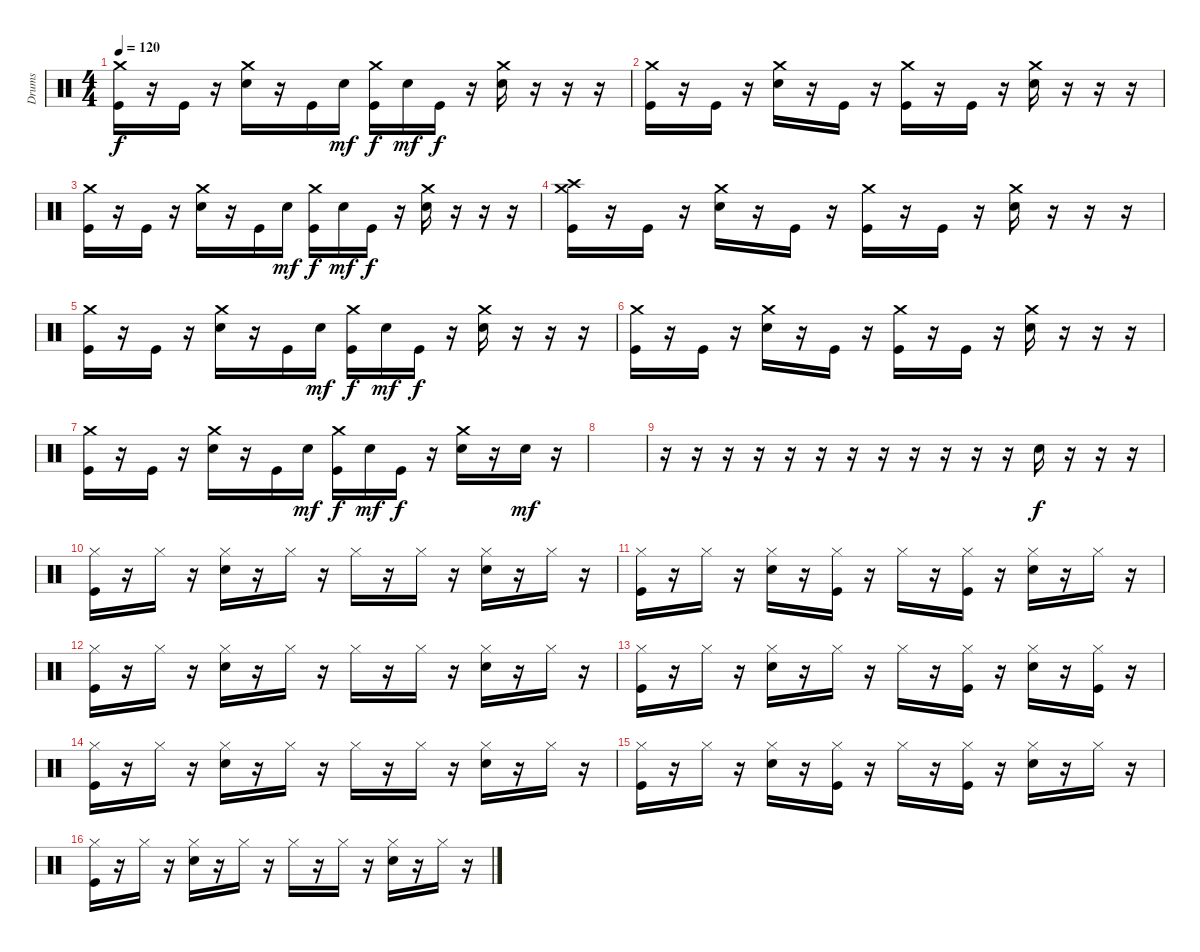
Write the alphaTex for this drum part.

\track ("Drums" "Drums") {instrument percussion}
\staff {score}
\articulation defaults
\ts (4 4)
\tempo 120
\clef neutral
\ks c
("Kick (hit)" "Crash medium (hit)").16{dy f} r.16 "Kick (hit)".16 r.16 ("Electric Snare (hit)" "Crash medium (hit)").16 r.16 "Kick (hit)".16 "Electric Snare (hit)".16{dy mf} ("Kick (hit)" "Crash medium (hit)").16{dy f} "Electric Snare (hit)".16{dy mf} "Kick (hit)".16{dy f} r.16 ("Electric Snare (hit)" "Crash medium (hit)").16 r.16 r.16 r.16 |
("Kick (hit)" "Crash medium (hit)").16 r.16 "Kick (hit)".16 r.16 ("Electric Snare (hit)" "Crash medium (hit)").16 r.16 "Kick (hit)".16 r.16 ("Kick (hit)" "Crash medium (hit)").16 r.16 "Kick (hit)".16 r.16 ("Electric Snare (hit)" "Crash medium (hit)").16 r.16 r.16 r.16 |
("Kick (hit)" "Crash medium (hit)").16 r.16 "Kick (hit)".16 r.16 ("Electric Snare (hit)" "Crash medium (hit)").16 r.16 "Kick (hit)".16 "Electric Snare (hit)".16{dy mf} ("Kick (hit)" "Crash medium (hit)").16{dy f} "Electric Snare (hit)".16{dy mf} "Kick (hit)".16{dy f} r.16 ("Electric Snare (hit)" "Crash medium (hit)").16 r.16 r.16 r.16 |
("Kick (hit)" "Crash high (hit)" "Crash medium (hit)").16 r.16 "Kick (hit)".16 r.16 ("Electric Snare (hit)" "Crash medium (hit)").16 r.16 "Kick (hit)".16 r.16 ("Kick (hit)" "Crash medium (hit)").16 r.16 "Kick (hit)".16 r.16 ("Electric Snare (hit)" "Crash medium (hit)").16 r.16 r.16 r.16 |
("Kick (hit)" "Crash medium (hit)").16 r.16 "Kick (hit)".16 r.16 ("Electric Snare (hit)" "Crash medium (hit)").16 r.16 "Kick (hit)".16 "Electric Snare (hit)".16{dy mf} ("Kick (hit)" "Crash medium (hit)").16{dy f} "Electric Snare (hit)".16{dy mf} "Kick (hit)".16{dy f} r.16 ("Electric Snare (hit)" "Crash medium (hit)").16 r.16 r.16 r.16 |
("Kick (hit)" "Crash medium (hit)").16 r.16 "Kick (hit)".16 r.16 ("Electric Snare (hit)" "Crash medium (hit)").16 r.16 "Kick (hit)".16 r.16 ("Kick (hit)" "Crash medium (hit)").16 r.16 "Kick (hit)".16 r.16 ("Electric Snare (hit)" "Crash medium (hit)").16 r.16 r.16 r.16 |
("Kick (hit)" "Crash medium (hit)").16 r.16 "Kick (hit)".16 r.16 ("Electric Snare (hit)" "Crash medium (hit)").16 r.16 "Kick (hit)".16 "Electric Snare (hit)".16{dy mf} ("Kick (hit)" "Crash medium (hit)").16{dy f} "Electric Snare (hit)".16{dy mf} "Kick (hit)".16{dy f} r.16 ("Electric Snare (hit)" "Crash medium (hit)").16 r.16 "Electric Snare (hit)".16{dy mf} r.16 |
|
r.16 r.16 r.16 r.16 r.16 r.16 r.16 r.16 r.16 r.16 r.16 r.16 "Electric Snare (hit)".16{dy f} r.16 r.16 r.16 |
("Kick (hit)" "Hi-Hat (closed)").16 r.16 "Hi-Hat (closed)".16 r.16 ("Electric Snare (hit)" "Hi-Hat (closed)").16 r.16 "Hi-Hat (closed)".16 r.16 "Hi-Hat (closed)".16 r.16 "Hi-Hat (closed)".16 r.16 ("Electric Snare (hit)" "Hi-Hat (closed)").16 r.16 "Hi-Hat (closed)".16 r.16 |
("Kick (hit)" "Hi-Hat (closed)").16 r.16 "Hi-Hat (closed)".16 r.16 ("Electric Snare (hit)" "Hi-Hat (closed)").16 r.16 ("Kick (hit)" "Hi-Hat (closed)").16 r.16 "Hi-Hat (closed)".16 r.16 ("Kick (hit)" "Hi-Hat (closed)").16 r.16 ("Electric Snare (hit)" "Hi-Hat (closed)").16 r.16 "Hi-Hat (closed)".16 r.16 |
("Kick (hit)" "Hi-Hat (closed)").16 r.16 "Hi-Hat (closed)".16 r.16 ("Electric Snare (hit)" "Hi-Hat (closed)").16 r.16 "Hi-Hat (closed)".16 r.16 "Hi-Hat (closed)".16 r.16 "Hi-Hat (closed)".16 r.16 ("Electric Snare (hit)" "Hi-Hat (closed)").16 r.16 "Hi-Hat (closed)".16 r.16 |
("Kick (hit)" "Hi-Hat (closed)").16 r.16 "Hi-Hat (closed)".16 r.16 ("Electric Snare (hit)" "Hi-Hat (closed)").16 r.16 "Hi-Hat (closed)".16 r.16 "Hi-Hat (closed)".16 r.16 ("Kick (hit)" "Hi-Hat (closed)").16 r.16 ("Electric Snare (hit)" "Hi-Hat (closed)").16 r.16 ("Kick (hit)" "Hi-Hat (closed)").16 r.16 |
("Kick (hit)" "Hi-Hat (closed)").16 r.16 "Hi-Hat (closed)".16 r.16 ("Electric Snare (hit)" "Hi-Hat (closed)").16 r.16 "Hi-Hat (closed)".16 r.16 "Hi-Hat (closed)".16 r.16 "Hi-Hat (closed)".16 r.16 ("Electric Snare (hit)" "Hi-Hat (closed)").16 r.16 "Hi-Hat (closed)".16 r.16 |
("Kick (hit)" "Hi-Hat (closed)").16 r.16 "Hi-Hat (closed)".16 r.16 ("Electric Snare (hit)" "Hi-Hat (closed)").16 r.16 ("Kick (hit)" "Hi-Hat (closed)").16 r.16 "Hi-Hat (closed)".16 r.16 ("Kick (hit)" "Hi-Hat (closed)").16 r.16 ("Electric Snare (hit)" "Hi-Hat (closed)").16 r.16 "Hi-Hat (closed)".16 r.16 |
("Kick (hit)" "Hi-Hat (closed)").16 r.16 "Hi-Hat (closed)".16 r.16 ("Electric Snare (hit)" "Hi-Hat (closed)").16 r.16 "Hi-Hat (closed)".16 r.16 "Hi-Hat (closed)".16 r.16 "Hi-Hat (closed)".16 r.16 ("Electric Snare (hit)" "Hi-Hat (closed)").16 r.16 "Hi-Hat (closed)".16 r.16
